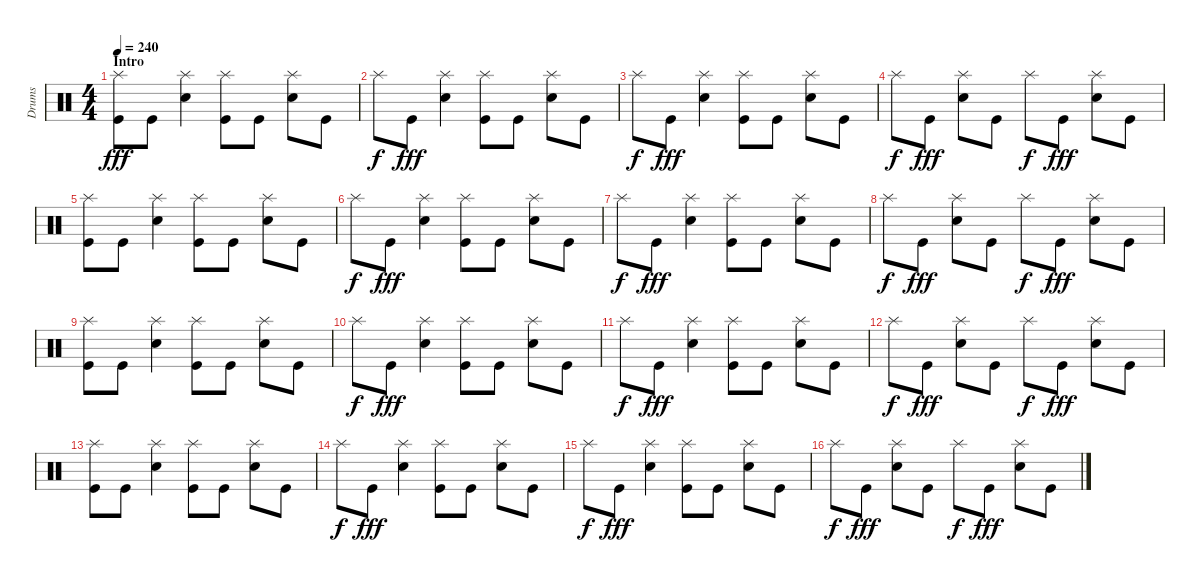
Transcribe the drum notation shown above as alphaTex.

\track ("Drums" "Drums") {instrument percussion}
\staff {score}
\articulation defaults
\ts (4 4)
\section ("" "Intro")
\tempo 240
\clef neutral
\ks c
("Kick (hit)" "Splash (hit)").8{dy fff} "Kick (hit)".8 ("Electric Snare (hit)" "Splash (hit)").4 ("Kick (hit)" "Splash (hit)").8 "Kick (hit)".8 ("Electric Snare (hit)" "Splash (hit)").8 "Kick (hit)".8 |
"Splash (hit)".8{dy f} "Kick (hit)".8{dy fff} ("Electric Snare (hit)" "Splash (hit)").4 ("Kick (hit)" "Splash (hit)").8 "Kick (hit)".8 ("Electric Snare (hit)" "Splash (hit)").8 "Kick (hit)".8 |
"Splash (hit)".8{dy f} "Kick (hit)".8{dy fff} ("Electric Snare (hit)" "Splash (hit)").4 ("Kick (hit)" "Splash (hit)").8 "Kick (hit)".8 ("Electric Snare (hit)" "Splash (hit)").8 "Kick (hit)".8 |
"Splash (hit)".8{dy f volume 14 balance 0} "Kick (hit)".8{dy fff} ("Electric Snare (hit)" "Splash (hit)").8{balance 16} "Kick (hit)".8 "Splash (hit)".8{dy f balance 0} "Kick (hit)".8{dy fff} ("Electric Snare (hit)" "Splash (hit)").8{balance 16} "Kick (hit)".8 |
("Kick (hit)" "Splash (hit)").8{volume 12 balance 8} "Kick (hit)".8 ("Electric Snare (hit)" "Splash (hit)").4 ("Kick (hit)" "Splash (hit)").8 "Kick (hit)".8 ("Electric Snare (hit)" "Splash (hit)").8 "Kick (hit)".8 |
"Splash (hit)".8{dy f} "Kick (hit)".8{dy fff} ("Electric Snare (hit)" "Splash (hit)").4 ("Kick (hit)" "Splash (hit)").8 "Kick (hit)".8 ("Electric Snare (hit)" "Splash (hit)").8 "Kick (hit)".8 |
"Splash (hit)".8{dy f} "Kick (hit)".8{dy fff} ("Electric Snare (hit)" "Splash (hit)").4 ("Kick (hit)" "Splash (hit)").8 "Kick (hit)".8 ("Electric Snare (hit)" "Splash (hit)").8 "Kick (hit)".8 |
"Splash (hit)".8{dy f volume 14 balance 0} "Kick (hit)".8{dy fff} ("Electric Snare (hit)" "Splash (hit)").8{balance 16} "Kick (hit)".8 "Splash (hit)".8{dy f balance 0} "Kick (hit)".8{dy fff} ("Electric Snare (hit)" "Splash (hit)").8{balance 16} "Kick (hit)".8 |
("Kick (hit)" "Splash (hit)").8{volume 12 balance 8} "Kick (hit)".8 ("Electric Snare (hit)" "Splash (hit)").4 ("Kick (hit)" "Splash (hit)").8 "Kick (hit)".8 ("Electric Snare (hit)" "Splash (hit)").8 "Kick (hit)".8 |
"Splash (hit)".8{dy f} "Kick (hit)".8{dy fff} ("Electric Snare (hit)" "Splash (hit)").4 ("Kick (hit)" "Splash (hit)").8 "Kick (hit)".8 ("Electric Snare (hit)" "Splash (hit)").8 "Kick (hit)".8 |
"Splash (hit)".8{dy f} "Kick (hit)".8{dy fff} ("Electric Snare (hit)" "Splash (hit)").4 ("Kick (hit)" "Splash (hit)").8 "Kick (hit)".8 ("Electric Snare (hit)" "Splash (hit)").8 "Kick (hit)".8 |
"Splash (hit)".8{dy f} "Kick (hit)".8{dy fff} ("Electric Snare (hit)" "Splash (hit)").8 "Kick (hit)".8 "Splash (hit)".8{dy f} "Kick (hit)".8{dy fff} ("Electric Snare (hit)" "Splash (hit)").8 "Kick (hit)".8 |
("Kick (hit)" "Splash (hit)").8 "Kick (hit)".8 ("Electric Snare (hit)" "Splash (hit)").4 ("Kick (hit)" "Splash (hit)").8 "Kick (hit)".8 ("Electric Snare (hit)" "Splash (hit)").8 "Kick (hit)".8 |
"Splash (hit)".8{dy f} "Kick (hit)".8{dy fff} ("Electric Snare (hit)" "Splash (hit)").4 ("Kick (hit)" "Splash (hit)").8 "Kick (hit)".8 ("Electric Snare (hit)" "Splash (hit)").8 "Kick (hit)".8 |
"Splash (hit)".8{dy f} "Kick (hit)".8{dy fff} ("Electric Snare (hit)" "Splash (hit)").4 ("Kick (hit)" "Splash (hit)").8 "Kick (hit)".8 ("Electric Snare (hit)" "Splash (hit)").8 "Kick (hit)".8 |
"Splash (hit)".8{dy f} "Kick (hit)".8{dy fff} ("Electric Snare (hit)" "Splash (hit)").8 "Kick (hit)".8 "Splash (hit)".8{dy f} "Kick (hit)".8{dy fff} ("Electric Snare (hit)" "Splash (hit)").8 "Kick (hit)".8
